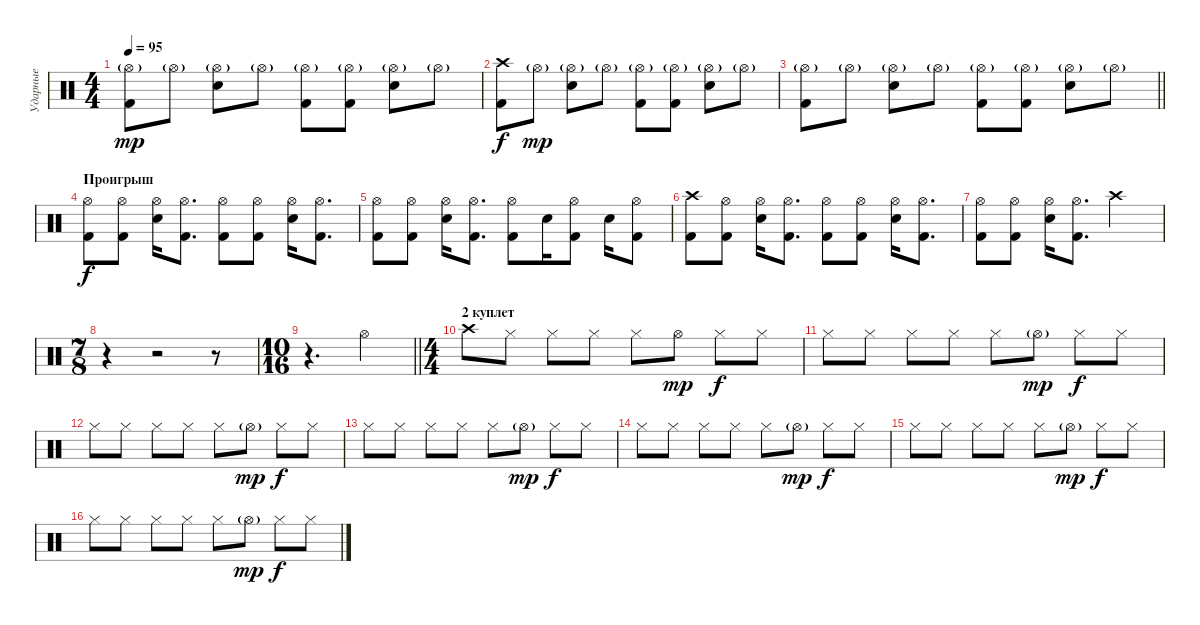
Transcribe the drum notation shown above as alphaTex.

\track ("Ударные" "Ударные") {instrument percussion}
\staff {score}
\articulation defaults
\ts (4 4)
\tempo 95
\clef neutral
\ks c
("Hi-Hat (open)"{g} "Kick (hit) 2").8{dy mp} "Hi-Hat (open)"{g}.8 ("Hi-Hat (open)"{g} "Snare (hit) 2").8 "Hi-Hat (open)"{g}.8 ("Hi-Hat (open)"{g} "Kick (hit) 2").8 ("Hi-Hat (open)"{g} "Kick (hit) 2").8 ("Hi-Hat (open)"{g} "Snare (hit) 2").8 "Hi-Hat (open)"{g}.8 |
("Crash high (hit)" "Kick (hit) 2").8{dy f} "Hi-Hat (open)"{g}.8{dy mp} ("Hi-Hat (open)"{g} "Snare (hit) 2").8 "Hi-Hat (open)"{g}.8 ("Hi-Hat (open)"{g} "Kick (hit) 2").8 ("Hi-Hat (open)"{g} "Kick (hit) 2").8 ("Hi-Hat (open)"{g} "Snare (hit) 2").8 "Hi-Hat (open)"{g}.8 |
\barLineRight lightlight
("Hi-Hat (open)"{g} "Kick (hit) 2").8 "Hi-Hat (open)"{g}.8 ("Hi-Hat (open)"{g} "Snare (hit) 2").8 "Hi-Hat (open)"{g}.8 ("Hi-Hat (open)"{g} "Kick (hit) 2").8 ("Hi-Hat (open)"{g} "Kick (hit) 2").8 ("Hi-Hat (open)"{g} "Snare (hit) 2").8 "Hi-Hat (open)"{g}.8 |
\section ("" "Проигрыш")
("Kick (hit) 2" "Hi-Hat (open)").8{dy f} ("Kick (hit) 2" "Hi-Hat (open)").8 ("Electric Snare (hit)" "Hi-Hat (open)").16 ("Hi-Hat (open)" "Kick (hit) 2").8{d} ("Kick (hit) 2" "Hi-Hat (open)").8 ("Kick (hit) 2" "Hi-Hat (open)").8 ("Electric Snare (hit)" "Hi-Hat (open)").16 ("Hi-Hat (open)" "Kick (hit) 2").8{d} |
("Kick (hit) 2" "Hi-Hat (open)").8 ("Kick (hit) 2" "Hi-Hat (open)").8 ("Electric Snare (hit)" "Hi-Hat (open)").16 ("Hi-Hat (open)" "Kick (hit) 2").8{d} ("Kick (hit) 2" "Hi-Hat (open)").8 "Electric Snare (hit)".16 ("Hi-Hat (open)" "Kick (hit) 2").8 "Electric Snare (hit)".16 ("Hi-Hat (open)" "Kick (hit) 2").8 |
("Kick (hit) 2" "Crash high (hit)").8 ("Kick (hit) 2" "Hi-Hat (open)").8 ("Electric Snare (hit)" "Hi-Hat (open)").16 ("Hi-Hat (open)" "Kick (hit) 2").8{d} ("Kick (hit) 2" "Hi-Hat (open)").8 ("Kick (hit) 2" "Hi-Hat (open)").8 ("Electric Snare (hit)" "Hi-Hat (open)").16 ("Hi-Hat (open)" "Kick (hit) 2").8{d} |
("Kick (hit) 2" "Hi-Hat (open)").8 ("Kick (hit) 2" "Hi-Hat (open)").8 ("Electric Snare (hit)" "Hi-Hat (open)").16 ("Hi-Hat (open)" "Kick (hit) 2").8{d} "Crash high (hit)".2 |
\ts (7 8)
r.4 r.2 r.8 |
\ts (10 16)
\barLineRight lightlight
r.4{d} "Hi-Hat (open)".4 |
\ts (4 4)
\section ("" "2 куплет")
"Crash high (hit)".8 "Hi-Hat (closed)".8 "Hi-Hat (closed)".8 "Hi-Hat (closed)".8 "Hi-Hat (closed)".8 "Hi-Hat (open)".8{dy mp} "Hi-Hat (closed)".8{dy f} "Hi-Hat (closed)".8 |
"Hi-Hat (closed)".8 "Hi-Hat (closed)".8 "Hi-Hat (closed)".8 "Hi-Hat (closed)".8 "Hi-Hat (closed)".8 "Hi-Hat (open)"{g}.8{dy mp} "Hi-Hat (closed)".8{dy f} "Hi-Hat (closed)".8 |
"Hi-Hat (closed)".8 "Hi-Hat (closed)".8 "Hi-Hat (closed)".8 "Hi-Hat (closed)".8 "Hi-Hat (closed)".8 "Hi-Hat (open)"{g}.8{dy mp} "Hi-Hat (closed)".8{dy f} "Hi-Hat (closed)".8 |
"Hi-Hat (closed)".8 "Hi-Hat (closed)".8 "Hi-Hat (closed)".8 "Hi-Hat (closed)".8 "Hi-Hat (closed)".8 "Hi-Hat (open)"{g}.8{dy mp} "Hi-Hat (closed)".8{dy f} "Hi-Hat (closed)".8 |
"Hi-Hat (closed)".8 "Hi-Hat (closed)".8 "Hi-Hat (closed)".8 "Hi-Hat (closed)".8 "Hi-Hat (closed)".8 "Hi-Hat (open)"{g}.8{dy mp} "Hi-Hat (closed)".8{dy f} "Hi-Hat (closed)".8 |
"Hi-Hat (closed)".8 "Hi-Hat (closed)".8 "Hi-Hat (closed)".8 "Hi-Hat (closed)".8 "Hi-Hat (closed)".8 "Hi-Hat (open)"{g}.8{dy mp} "Hi-Hat (closed)".8{dy f} "Hi-Hat (closed)".8 |
"Hi-Hat (closed)".8 "Hi-Hat (closed)".8 "Hi-Hat (closed)".8 "Hi-Hat (closed)".8 "Hi-Hat (closed)".8 "Hi-Hat (open)"{g}.8{dy mp} "Hi-Hat (closed)".8{dy f} "Hi-Hat (closed)".8
